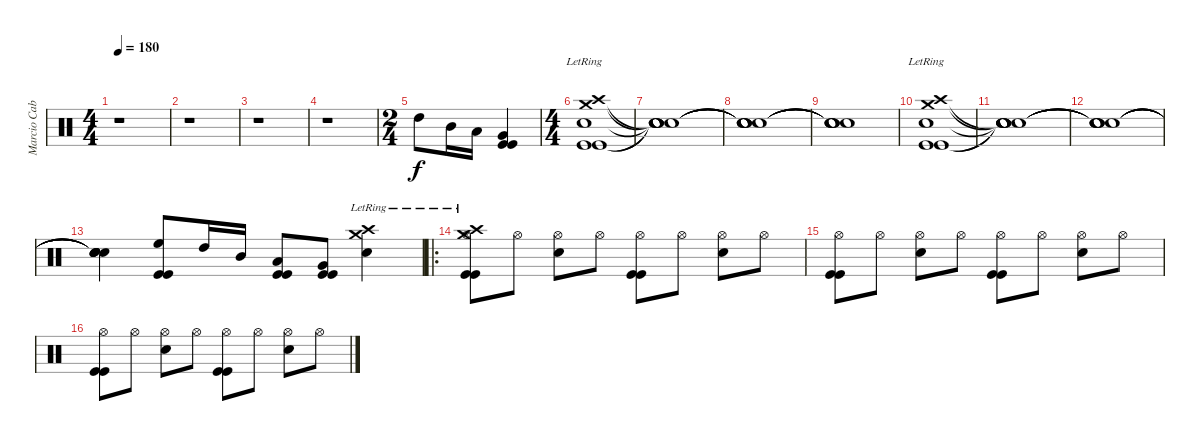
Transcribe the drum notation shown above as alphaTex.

\track ("Marcio Cabrita" "Marcio Cab") {instrument percussion}
\staff {score}
\articulation defaults
\ts (4 4)
\tempo 180
\clef neutral
\ks c
r.1{dy f} |
r.1 |
r.1 |
r.1 |
\ts (2 4)
"High Tom (hit)".8 "Mid Tom (hit)".16 "Low Tom (hit)".16 ("Very Low Tom (hit)" "Kick (hit)" "Kick (hit)").4 |
\ts (4 4)
("Crash high (hit)"{lr} "Crash medium (hit)"{lr} "Snare (hit) 2" "Kick (hit)" "Kick (hit)").1 |
("Snare (hit)"{t} "Snare (hit)"{t} "Snare (hit)"{t} "Snare (hit)"{t} "Snare (hit)"{t}).1 |
("Snare (hit)"{t} "Snare (hit)"{t} "Snare (hit)"{t} "Snare (hit)"{t} "Snare (hit)"{t}).1 |
("Snare (hit)"{t} "Snare (hit)"{t} "Snare (hit)"{t} "Snare (hit)"{t} "Snare (hit)"{t}).1 |
("Crash high (hit)"{lr} "Crash medium (hit)"{lr} "Snare (hit) 2" "Kick (hit)" "Kick (hit)").1 |
("Snare (hit)"{t} "Snare (hit)"{t} "Snare (hit)"{t} "Snare (hit)"{t} "Snare (hit)"{t}).1 |
("Snare (hit)"{t} "Snare (hit)"{t} "Snare (hit)"{t} "Snare (hit)"{t} "Snare (hit)"{t}).1 |
("Snare (hit)"{t} "Snare (hit)"{t} "Snare (hit)"{t} "Snare (hit)"{t} "Snare (hit)"{t}).4 ("High Floor Tom (hit)" "Kick (hit)" "Kick (hit)").8 "High Tom (hit)".16 "Mid Tom (hit)".16 ("Low Tom (hit)" "Kick (hit)" "Kick (hit)").8 ("Very Low Tom (hit)" "Kick (hit)" "Kick (hit)").8 ("Crash high (hit)"{lr} "Crash medium (hit)"{lr} "Snare (hit) 2").4 |
\ro
("Crash high (hit)"{lr} "Crash medium (hit)"{lr} "Hi-Hat (open)" "Kick (hit)" "Kick (hit)").8 "Hi-Hat (open)".8 ("Snare (hit) 2" "Hi-Hat (open)").8 "Hi-Hat (open)".8 ("Hi-Hat (open)" "Kick (hit)" "Kick (hit)").8 "Hi-Hat (open)".8 ("Snare (hit) 2" "Hi-Hat (open)").8 "Hi-Hat (open)".8 |
("Hi-Hat (open)" "Kick (hit)" "Kick (hit)").8 "Hi-Hat (open)".8 ("Snare (hit) 2" "Hi-Hat (open)").8 "Hi-Hat (open)".8 ("Hi-Hat (open)" "Kick (hit)" "Kick (hit)").8 "Hi-Hat (open)".8 ("Snare (hit) 2" "Hi-Hat (open)").8 "Hi-Hat (open)".8 |
("Hi-Hat (open)" "Kick (hit)" "Kick (hit)").8 "Hi-Hat (open)".8 ("Snare (hit) 2" "Hi-Hat (open)").8 "Hi-Hat (open)".8 ("Hi-Hat (open)" "Kick (hit)" "Kick (hit)").8 "Hi-Hat (open)".8 ("Snare (hit) 2" "Hi-Hat (open)").8 "Hi-Hat (open)".8
